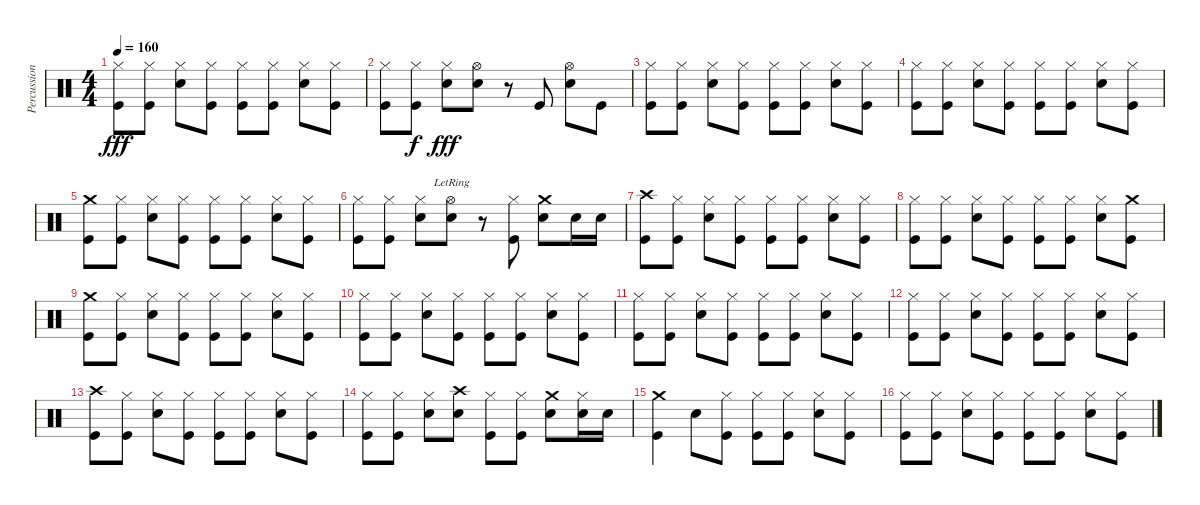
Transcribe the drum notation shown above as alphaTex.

\track ("Percussions" "Percussion") {instrument percussion}
\staff {score}
\articulation defaults
\ts (4 4)
\tempo 160
\clef neutral
\ks c
("Hi-Hat (closed)" "Kick (hit)").8{dy fff} ("Hi-Hat (closed)" "Kick (hit)").8 ("Hi-Hat (closed)" "Electric Snare (hit)").8 ("Hi-Hat (closed)" "Kick (hit)").8 ("Hi-Hat (closed)" "Kick (hit)").8 ("Hi-Hat (closed)" "Kick (hit)").8 ("Hi-Hat (closed)" "Electric Snare (hit)").8 ("Hi-Hat (closed)" "Kick (hit)").8 |
("Hi-Hat (closed)" "Kick (hit)").8 ("Hi-Hat (closed)" "Kick (hit)").8{dy f} ("Hi-Hat (closed)" "Electric Snare (hit)").8{dy fff} ("Hi-Hat (open)" "Electric Snare (hit)").8 r.8 "Kick (hit)".8 ("Hi-Hat (open)" "Electric Snare (hit)").8 "Kick (hit)".8 |
("Hi-Hat (closed)" "Kick (hit)").8 ("Hi-Hat (closed)" "Kick (hit)").8 ("Hi-Hat (closed)" "Electric Snare (hit)").8 ("Hi-Hat (closed)" "Kick (hit)").8 ("Hi-Hat (closed)" "Kick (hit)").8 ("Hi-Hat (closed)" "Kick (hit)").8 ("Hi-Hat (closed)" "Electric Snare (hit)").8 ("Hi-Hat (closed)" "Kick (hit)").8 |
("Hi-Hat (closed)" "Kick (hit)").8 ("Hi-Hat (closed)" "Kick (hit)").8 ("Hi-Hat (closed)" "Electric Snare (hit)").8 ("Hi-Hat (closed)" "Kick (hit)").8 ("Hi-Hat (closed)" "Kick (hit)").8 ("Hi-Hat (closed)" "Kick (hit)").8 ("Hi-Hat (closed)" "Electric Snare (hit)").8 ("Hi-Hat (closed)" "Kick (hit)").8 |
("Crash medium (hit)" "Kick (hit)").8 ("Hi-Hat (closed)" "Kick (hit)").8 ("Hi-Hat (closed)" "Electric Snare (hit)").8 ("Hi-Hat (closed)" "Kick (hit)").8 ("Hi-Hat (closed)" "Kick (hit)").8 ("Hi-Hat (closed)" "Kick (hit)").8 ("Hi-Hat (closed)" "Electric Snare (hit)").8 ("Hi-Hat (closed)" "Kick (hit)").8 |
("Hi-Hat (closed)" "Kick (hit)").8 ("Hi-Hat (closed)" "Kick (hit)").8 ("Hi-Hat (closed)" "Electric Snare (hit)").8 ("Hi-Hat (open)"{lr} "Electric Snare (hit)").8 r.8 ("Hi-Hat (closed)" "Kick (hit)").8 ("Crash medium (hit)" "Electric Snare (hit)").8 "Electric Snare (hit)".16 "Electric Snare (hit)".16 |
("Crash high (hit)" "Kick (hit)").8 ("Hi-Hat (closed)" "Kick (hit)").8 ("Hi-Hat (closed)" "Electric Snare (hit)").8 ("Hi-Hat (closed)" "Kick (hit)").8 ("Hi-Hat (closed)" "Kick (hit)").8 ("Hi-Hat (closed)" "Kick (hit)").8 ("Hi-Hat (closed)" "Electric Snare (hit)").8 ("Hi-Hat (closed)" "Kick (hit)").8 |
("Hi-Hat (closed)" "Kick (hit)").8 ("Hi-Hat (closed)" "Kick (hit)").8 ("Hi-Hat (closed)" "Electric Snare (hit)").8 ("Hi-Hat (closed)" "Kick (hit)").8 ("Hi-Hat (closed)" "Kick (hit)").8 ("Hi-Hat (closed)" "Kick (hit)").8 ("Hi-Hat (closed)" "Electric Snare (hit)").8 ("Crash medium (hit)" "Kick (hit)").8 |
("Crash medium (hit)" "Kick (hit)").8 ("Hi-Hat (closed)" "Kick (hit)").8 ("Hi-Hat (closed)" "Electric Snare (hit)").8 ("Hi-Hat (closed)" "Kick (hit)").8 ("Hi-Hat (closed)" "Kick (hit)").8 ("Hi-Hat (closed)" "Kick (hit)").8 ("Hi-Hat (closed)" "Electric Snare (hit)").8 ("Hi-Hat (closed)" "Kick (hit)").8 |
("Hi-Hat (closed)" "Kick (hit)").8 ("Hi-Hat (closed)" "Kick (hit)").8 ("Hi-Hat (closed)" "Electric Snare (hit)").8 ("Hi-Hat (closed)" "Kick (hit)").8 ("Hi-Hat (closed)" "Kick (hit)").8 ("Hi-Hat (closed)" "Kick (hit)").8 ("Hi-Hat (closed)" "Electric Snare (hit)").8 ("Hi-Hat (closed)" "Kick (hit)").8 |
("Hi-Hat (closed)" "Kick (hit)").8 ("Hi-Hat (closed)" "Kick (hit)").8 ("Hi-Hat (closed)" "Electric Snare (hit)").8 ("Hi-Hat (closed)" "Kick (hit)").8 ("Hi-Hat (closed)" "Kick (hit)").8 ("Hi-Hat (closed)" "Kick (hit)").8 ("Hi-Hat (closed)" "Electric Snare (hit)").8 ("Hi-Hat (closed)" "Kick (hit)").8 |
("Hi-Hat (closed)" "Kick (hit)").8 ("Hi-Hat (closed)" "Kick (hit)").8 ("Hi-Hat (closed)" "Electric Snare (hit)").8 ("Hi-Hat (closed)" "Kick (hit)").8 ("Hi-Hat (closed)" "Kick (hit)").8 ("Hi-Hat (closed)" "Kick (hit)").8 ("Hi-Hat (closed)" "Electric Snare (hit)").8 ("Hi-Hat (closed)" "Kick (hit)").8 |
("Crash high (hit)" "Kick (hit)").8 ("Hi-Hat (closed)" "Kick (hit)").8 ("Hi-Hat (closed)" "Electric Snare (hit)").8 ("Hi-Hat (closed)" "Kick (hit)").8 ("Hi-Hat (closed)" "Kick (hit)").8 ("Hi-Hat (closed)" "Kick (hit)").8 ("Hi-Hat (closed)" "Electric Snare (hit)").8 ("Hi-Hat (closed)" "Kick (hit)").8 |
("Hi-Hat (closed)" "Kick (hit)").8 ("Hi-Hat (closed)" "Kick (hit)").8 ("Hi-Hat (closed)" "Electric Snare (hit)").8 ("Crash high (hit)" "Electric Snare (hit)").8 ("Hi-Hat (closed)" "Kick (hit)").8 ("Hi-Hat (closed)" "Kick (hit)").8 ("Crash medium (hit)" "Electric Snare (hit)").8 ("Hi-Hat (closed)" "Electric Snare (hit)").16 "Electric Snare (hit)".16 |
("Crash medium (hit)" "Kick (hit)").4 "Electric Snare (hit)".8 ("Hi-Hat (closed)" "Kick (hit)").8 ("Hi-Hat (closed)" "Kick (hit)").8 ("Hi-Hat (closed)" "Kick (hit)").8 ("Hi-Hat (closed)" "Electric Snare (hit)").8 ("Hi-Hat (closed)" "Kick (hit)").8 |
("Hi-Hat (closed)" "Kick (hit)").8 ("Hi-Hat (closed)" "Kick (hit)").8 ("Hi-Hat (closed)" "Electric Snare (hit)").8 ("Hi-Hat (closed)" "Kick (hit)").8 ("Hi-Hat (closed)" "Kick (hit)").8 ("Hi-Hat (closed)" "Kick (hit)").8 ("Hi-Hat (closed)" "Electric Snare (hit)").8 ("Hi-Hat (closed)" "Kick (hit)").8
